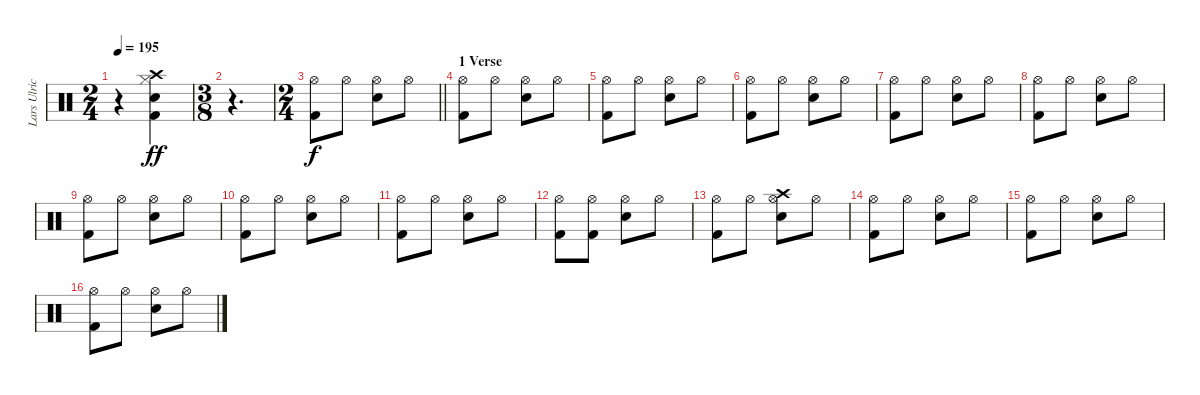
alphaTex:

\track ("Lars Ulrich" "Lars Ulric") {instrument percussion}
\staff {score}
\articulation defaults
\ts (2 4)
\tempo 195
\clef neutral
\ks c
r.4{dy f} ("Kick (hit) 2" "Snare (hit) 2" "Hi-Hat (closed)" "Crash high (hit)").4{dy ff} |
\ts (3 8)
r.4{d} |
\ts (2 4)
\barLineRight lightlight
("Kick (hit) 2" "Hi-Hat (open)").8{dy f} "Hi-Hat (open)".8 ("Snare (hit) 2" "Hi-Hat (open)").8 "Hi-Hat (open)".8 |
\section ("" "1 Verse")
("Kick (hit) 2" "Hi-Hat (open)").8 "Hi-Hat (open)".8 ("Snare (hit) 2" "Hi-Hat (open)").8 "Hi-Hat (open)".8 |
("Kick (hit) 2" "Hi-Hat (open)").8 "Hi-Hat (open)".8 ("Snare (hit) 2" "Hi-Hat (open)").8 "Hi-Hat (open)".8 |
("Kick (hit) 2" "Hi-Hat (open)").8 "Hi-Hat (open)".8 ("Snare (hit) 2" "Hi-Hat (open)").8 "Hi-Hat (open)".8 |
("Kick (hit) 2" "Hi-Hat (open)").8 "Hi-Hat (open)".8 ("Snare (hit) 2" "Hi-Hat (open)").8 "Hi-Hat (open)".8 |
("Kick (hit) 2" "Hi-Hat (open)").8 "Hi-Hat (open)".8 ("Snare (hit) 2" "Hi-Hat (open)").8 "Hi-Hat (open)".8 |
("Kick (hit) 2" "Hi-Hat (open)").8 "Hi-Hat (open)".8 ("Snare (hit) 2" "Hi-Hat (open)").8 "Hi-Hat (open)".8 |
("Kick (hit) 2" "Hi-Hat (open)").8 "Hi-Hat (open)".8 ("Snare (hit) 2" "Hi-Hat (open)").8 "Hi-Hat (open)".8 |
("Kick (hit) 2" "Hi-Hat (open)").8 "Hi-Hat (open)".8 ("Snare (hit) 2" "Hi-Hat (open)").8 "Hi-Hat (open)".8 |
("Kick (hit) 2" "Hi-Hat (open)").8 ("Kick (hit) 2" "Hi-Hat (open)").8 ("Snare (hit) 2" "Hi-Hat (open)").8 "Hi-Hat (open)".8 |
("Kick (hit) 2" "Hi-Hat (open)").8 "Hi-Hat (open)".8 ("Snare (hit) 2" "Hi-Hat (open)" "Crash high (hit)").8 "Hi-Hat (open)".8 |
("Kick (hit) 2" "Hi-Hat (open)").8 "Hi-Hat (open)".8 ("Snare (hit) 2" "Hi-Hat (open)").8 "Hi-Hat (open)".8 |
("Kick (hit) 2" "Hi-Hat (open)").8 "Hi-Hat (open)".8 ("Snare (hit) 2" "Hi-Hat (open)").8 "Hi-Hat (open)".8 |
("Kick (hit) 2" "Hi-Hat (open)").8 "Hi-Hat (open)".8 ("Snare (hit) 2" "Hi-Hat (open)").8 "Hi-Hat (open)".8
